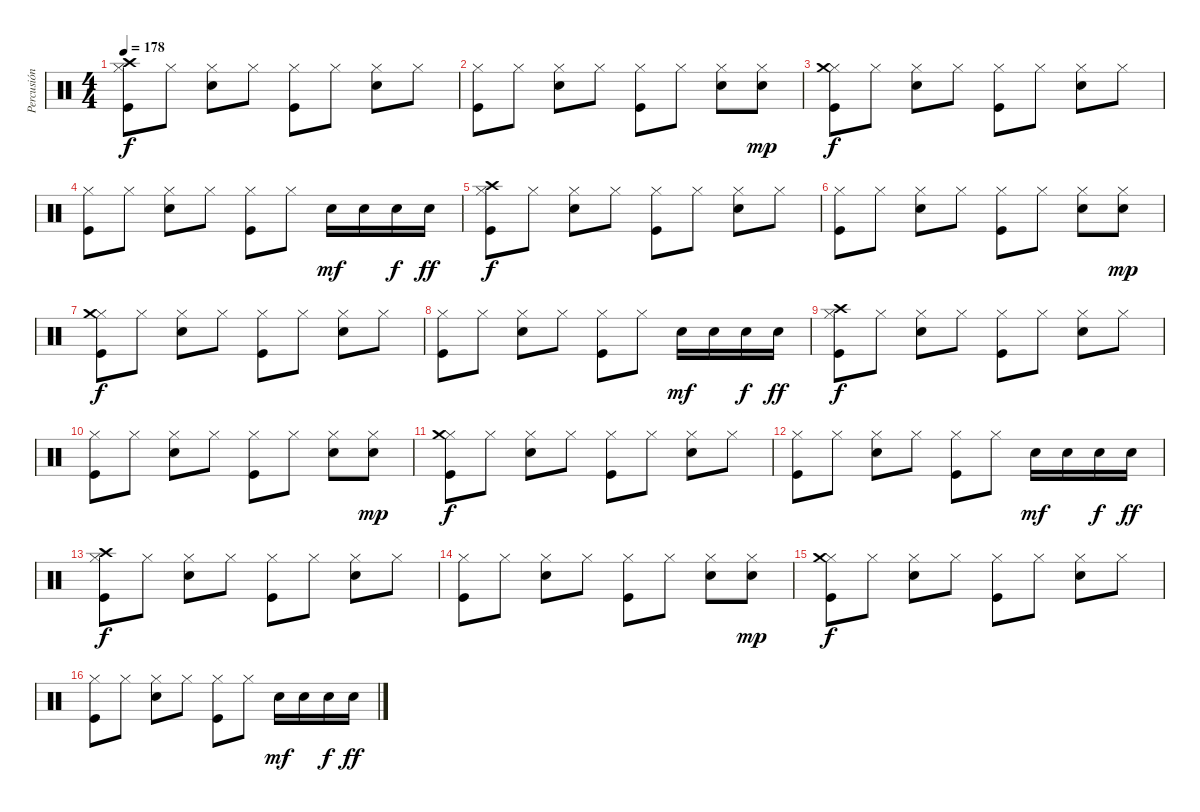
\track ("Percusión" "Percusión") {instrument percussion}
\staff {score}
\articulation defaults
\ts (4 4)
\tempo 178
\clef neutral
\ks c
("Hi-Hat (closed)" "Crash high (hit)" "Kick (hit)").8{dy f} "Hi-Hat (closed)".8 ("Hi-Hat (closed)" "Electric Snare (hit)").8 "Hi-Hat (closed)".8 ("Hi-Hat (closed)" "Kick (hit)").8 "Hi-Hat (closed)".8 ("Hi-Hat (closed)" "Electric Snare (hit)").8 "Hi-Hat (closed)".8 |
("Hi-Hat (closed)" "Kick (hit)").8 "Hi-Hat (closed)".8 ("Hi-Hat (closed)" "Electric Snare (hit)").8 "Hi-Hat (closed)".8 ("Hi-Hat (closed)" "Kick (hit)").8 "Hi-Hat (closed)".8 ("Hi-Hat (closed)" "Electric Snare (hit)").8 ("Hi-Hat (closed)" "Electric Snare (hit)").8{dy mp} |
("Hi-Hat (closed)" "Crash medium (hit)" "Kick (hit)").8{dy f} "Hi-Hat (closed)".8 ("Hi-Hat (closed)" "Electric Snare (hit)").8 "Hi-Hat (closed)".8 ("Hi-Hat (closed)" "Kick (hit)").8 "Hi-Hat (closed)".8 ("Hi-Hat (closed)" "Electric Snare (hit)").8 "Hi-Hat (closed)".8 |
("Hi-Hat (closed)" "Kick (hit)").8 "Hi-Hat (closed)".8 ("Hi-Hat (closed)" "Electric Snare (hit)").8 "Hi-Hat (closed)".8 ("Hi-Hat (closed)" "Kick (hit)").8 "Hi-Hat (closed)".8 "Electric Snare (hit)".16{dy mf} "Electric Snare (hit)".16 "Electric Snare (hit)".16{dy f} "Electric Snare (hit)".16{dy ff} |
("Hi-Hat (closed)" "Crash high (hit)" "Kick (hit)").8{dy f} "Hi-Hat (closed)".8 ("Hi-Hat (closed)" "Electric Snare (hit)").8 "Hi-Hat (closed)".8 ("Hi-Hat (closed)" "Kick (hit)").8 "Hi-Hat (closed)".8 ("Hi-Hat (closed)" "Electric Snare (hit)").8 "Hi-Hat (closed)".8 |
("Hi-Hat (closed)" "Kick (hit)").8 "Hi-Hat (closed)".8 ("Hi-Hat (closed)" "Electric Snare (hit)").8 "Hi-Hat (closed)".8 ("Hi-Hat (closed)" "Kick (hit)").8 "Hi-Hat (closed)".8 ("Hi-Hat (closed)" "Electric Snare (hit)").8 ("Hi-Hat (closed)" "Electric Snare (hit)").8{dy mp} |
("Hi-Hat (closed)" "Crash medium (hit)" "Kick (hit)").8{dy f} "Hi-Hat (closed)".8 ("Hi-Hat (closed)" "Electric Snare (hit)").8 "Hi-Hat (closed)".8 ("Hi-Hat (closed)" "Kick (hit)").8 "Hi-Hat (closed)".8 ("Hi-Hat (closed)" "Electric Snare (hit)").8 "Hi-Hat (closed)".8 |
("Hi-Hat (closed)" "Kick (hit)").8 "Hi-Hat (closed)".8 ("Hi-Hat (closed)" "Electric Snare (hit)").8 "Hi-Hat (closed)".8 ("Hi-Hat (closed)" "Kick (hit)").8 "Hi-Hat (closed)".8 "Electric Snare (hit)".16{dy mf} "Electric Snare (hit)".16 "Electric Snare (hit)".16{dy f} "Electric Snare (hit)".16{dy ff} |
("Hi-Hat (closed)" "Crash high (hit)" "Kick (hit)").8{dy f} "Hi-Hat (closed)".8 ("Hi-Hat (closed)" "Electric Snare (hit)").8 "Hi-Hat (closed)".8 ("Hi-Hat (closed)" "Kick (hit)").8 "Hi-Hat (closed)".8 ("Hi-Hat (closed)" "Electric Snare (hit)").8 "Hi-Hat (closed)".8 |
("Hi-Hat (closed)" "Kick (hit)").8 "Hi-Hat (closed)".8 ("Hi-Hat (closed)" "Electric Snare (hit)").8 "Hi-Hat (closed)".8 ("Hi-Hat (closed)" "Kick (hit)").8 "Hi-Hat (closed)".8 ("Hi-Hat (closed)" "Electric Snare (hit)").8 ("Hi-Hat (closed)" "Electric Snare (hit)").8{dy mp} |
("Hi-Hat (closed)" "Crash medium (hit)" "Kick (hit)").8{dy f} "Hi-Hat (closed)".8 ("Hi-Hat (closed)" "Electric Snare (hit)").8 "Hi-Hat (closed)".8 ("Hi-Hat (closed)" "Kick (hit)").8 "Hi-Hat (closed)".8 ("Hi-Hat (closed)" "Electric Snare (hit)").8 "Hi-Hat (closed)".8 |
("Hi-Hat (closed)" "Kick (hit)").8 "Hi-Hat (closed)".8 ("Hi-Hat (closed)" "Electric Snare (hit)").8 "Hi-Hat (closed)".8 ("Hi-Hat (closed)" "Kick (hit)").8 "Hi-Hat (closed)".8 "Electric Snare (hit)".16{dy mf} "Electric Snare (hit)".16 "Electric Snare (hit)".16{dy f} "Electric Snare (hit)".16{dy ff} |
("Hi-Hat (closed)" "Crash high (hit)" "Kick (hit)").8{dy f} "Hi-Hat (closed)".8 ("Hi-Hat (closed)" "Electric Snare (hit)").8 "Hi-Hat (closed)".8 ("Hi-Hat (closed)" "Kick (hit)").8 "Hi-Hat (closed)".8 ("Hi-Hat (closed)" "Electric Snare (hit)").8 "Hi-Hat (closed)".8 |
("Hi-Hat (closed)" "Kick (hit)").8 "Hi-Hat (closed)".8 ("Hi-Hat (closed)" "Electric Snare (hit)").8 "Hi-Hat (closed)".8 ("Hi-Hat (closed)" "Kick (hit)").8 "Hi-Hat (closed)".8 ("Hi-Hat (closed)" "Electric Snare (hit)").8 ("Hi-Hat (closed)" "Electric Snare (hit)").8{dy mp} |
("Hi-Hat (closed)" "Crash medium (hit)" "Kick (hit)").8{dy f} "Hi-Hat (closed)".8 ("Hi-Hat (closed)" "Electric Snare (hit)").8 "Hi-Hat (closed)".8 ("Hi-Hat (closed)" "Kick (hit)").8 "Hi-Hat (closed)".8 ("Hi-Hat (closed)" "Electric Snare (hit)").8 "Hi-Hat (closed)".8 |
("Hi-Hat (closed)" "Kick (hit)").8 "Hi-Hat (closed)".8 ("Hi-Hat (closed)" "Electric Snare (hit)").8 "Hi-Hat (closed)".8 ("Hi-Hat (closed)" "Kick (hit)").8 "Hi-Hat (closed)".8 "Electric Snare (hit)".16{dy mf} "Electric Snare (hit)".16 "Electric Snare (hit)".16{dy f} "Electric Snare (hit)".16{dy ff}
